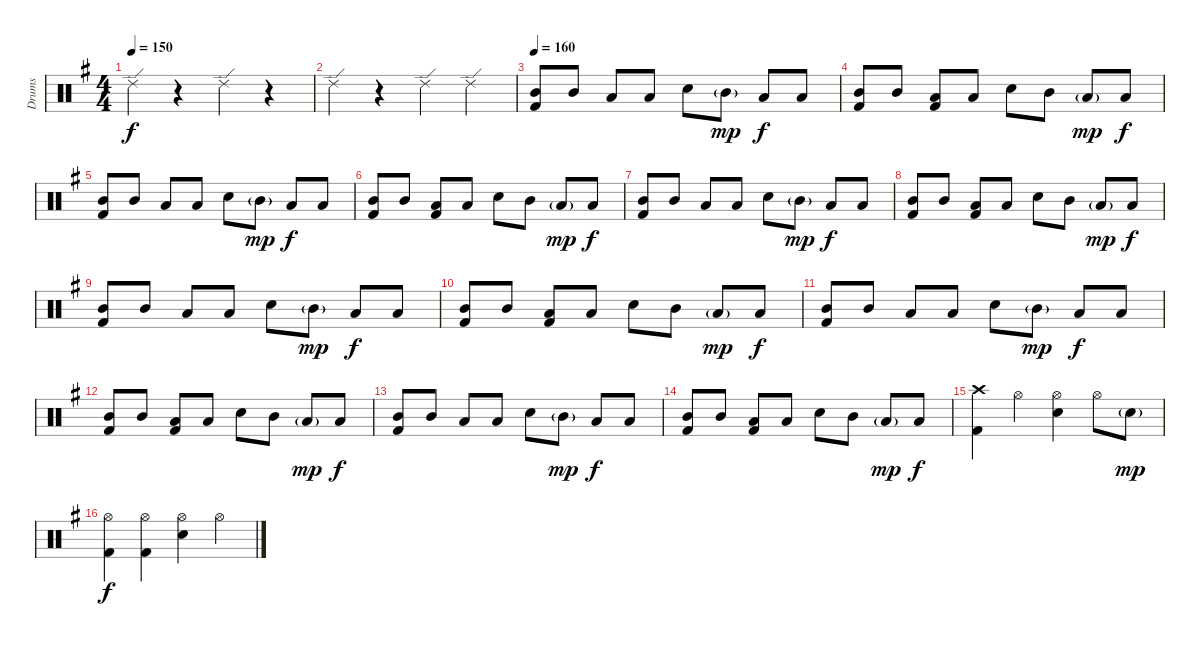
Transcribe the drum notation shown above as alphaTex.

\track ("Drums" "Drums") {instrument percussion}
\staff {score}
\articulation defaults
\ts (4 4)
\tempo 150
\clef neutral
\ks g "Ride (edge) 2".4{dy f}
r.4 "Ride (edge) 2".4 r.4 |
"Ride (edge) 2".4 r.4 "Ride (edge) 2".4 "Ride (edge) 2".4 |
\tempo 160
("Mid Tom (hit)" "Kick (hit) 2").8 "Mid Tom (hit)".8 "Low Tom (hit)".8 "Low Tom (hit)".8 "Electric Snare (hit)".8 "Mid Tom (hit)"{g}.8{dy mp} "Low Tom (hit)".8{dy f} "Low Tom (hit)".8 |
("Mid Tom (hit)" "Kick (hit) 2").8 "Mid Tom (hit)".8 ("Low Tom (hit)" "Kick (hit) 2").8 "Low Tom (hit)".8 "Electric Snare (hit)".8 "Mid Tom (hit)".8 "Low Tom (hit)"{g}.8{dy mp} "Low Tom (hit)".8{dy f} |
("Mid Tom (hit)" "Kick (hit) 2").8 "Mid Tom (hit)".8 "Low Tom (hit)".8 "Low Tom (hit)".8 "Electric Snare (hit)".8 "Mid Tom (hit)"{g}.8{dy mp} "Low Tom (hit)".8{dy f} "Low Tom (hit)".8 |
("Mid Tom (hit)" "Kick (hit) 2").8 "Mid Tom (hit)".8 ("Low Tom (hit)" "Kick (hit) 2").8 "Low Tom (hit)".8 "Electric Snare (hit)".8 "Mid Tom (hit)".8 "Low Tom (hit)"{g}.8{dy mp} "Low Tom (hit)".8{dy f} |
("Mid Tom (hit)" "Kick (hit) 2").8 "Mid Tom (hit)".8 "Low Tom (hit)".8 "Low Tom (hit)".8 "Electric Snare (hit)".8 "Mid Tom (hit)"{g}.8{dy mp} "Low Tom (hit)".8{dy f} "Low Tom (hit)".8 |
("Mid Tom (hit)" "Kick (hit) 2").8 "Mid Tom (hit)".8 ("Low Tom (hit)" "Kick (hit) 2").8 "Low Tom (hit)".8 "Electric Snare (hit)".8 "Mid Tom (hit)".8 "Low Tom (hit)"{g}.8{dy mp} "Low Tom (hit)".8{dy f} |
("Mid Tom (hit)" "Kick (hit) 2").8 "Mid Tom (hit)".8 "Low Tom (hit)".8 "Low Tom (hit)".8 "Electric Snare (hit)".8 "Mid Tom (hit)"{g}.8{dy mp} "Low Tom (hit)".8{dy f} "Low Tom (hit)".8 |
("Mid Tom (hit)" "Kick (hit) 2").8 "Mid Tom (hit)".8 ("Low Tom (hit)" "Kick (hit) 2").8 "Low Tom (hit)".8 "Electric Snare (hit)".8 "Mid Tom (hit)".8 "Low Tom (hit)"{g}.8{dy mp} "Low Tom (hit)".8{dy f} |
("Mid Tom (hit)" "Kick (hit) 2").8 "Mid Tom (hit)".8 "Low Tom (hit)".8 "Low Tom (hit)".8 "Electric Snare (hit)".8 "Mid Tom (hit)"{g}.8{dy mp} "Low Tom (hit)".8{dy f} "Low Tom (hit)".8 |
("Mid Tom (hit)" "Kick (hit) 2").8 "Mid Tom (hit)".8 ("Low Tom (hit)" "Kick (hit) 2").8 "Low Tom (hit)".8 "Electric Snare (hit)".8 "Mid Tom (hit)".8 "Low Tom (hit)"{g}.8{dy mp} "Low Tom (hit)".8{dy f} |
("Mid Tom (hit)" "Kick (hit) 2").8 "Mid Tom (hit)".8 "Low Tom (hit)".8 "Low Tom (hit)".8 "Electric Snare (hit)".8 "Mid Tom (hit)"{g}.8{dy mp} "Low Tom (hit)".8{dy f} "Low Tom (hit)".8 |
("Mid Tom (hit)" "Kick (hit) 2").8 "Mid Tom (hit)".8 ("Low Tom (hit)" "Kick (hit) 2").8 "Low Tom (hit)".8 "Electric Snare (hit)".8 "Mid Tom (hit)".8 "Low Tom (hit)"{g}.8{dy mp} "Low Tom (hit)".8{dy f} |
("Crash high (hit)" "Kick (hit) 2").4 "Hi-Hat (open)".4 ("Hi-Hat (open)" "Electric Snare (hit)").4 "Hi-Hat (open)".8 "Electric Snare (hit)"{g}.8{dy mp} |
("Hi-Hat (open)" "Kick (hit) 2").4{dy f} ("Hi-Hat (open)" "Kick (hit) 2").4 ("Hi-Hat (open)" "Electric Snare (hit)").4 "Hi-Hat (open)".4
